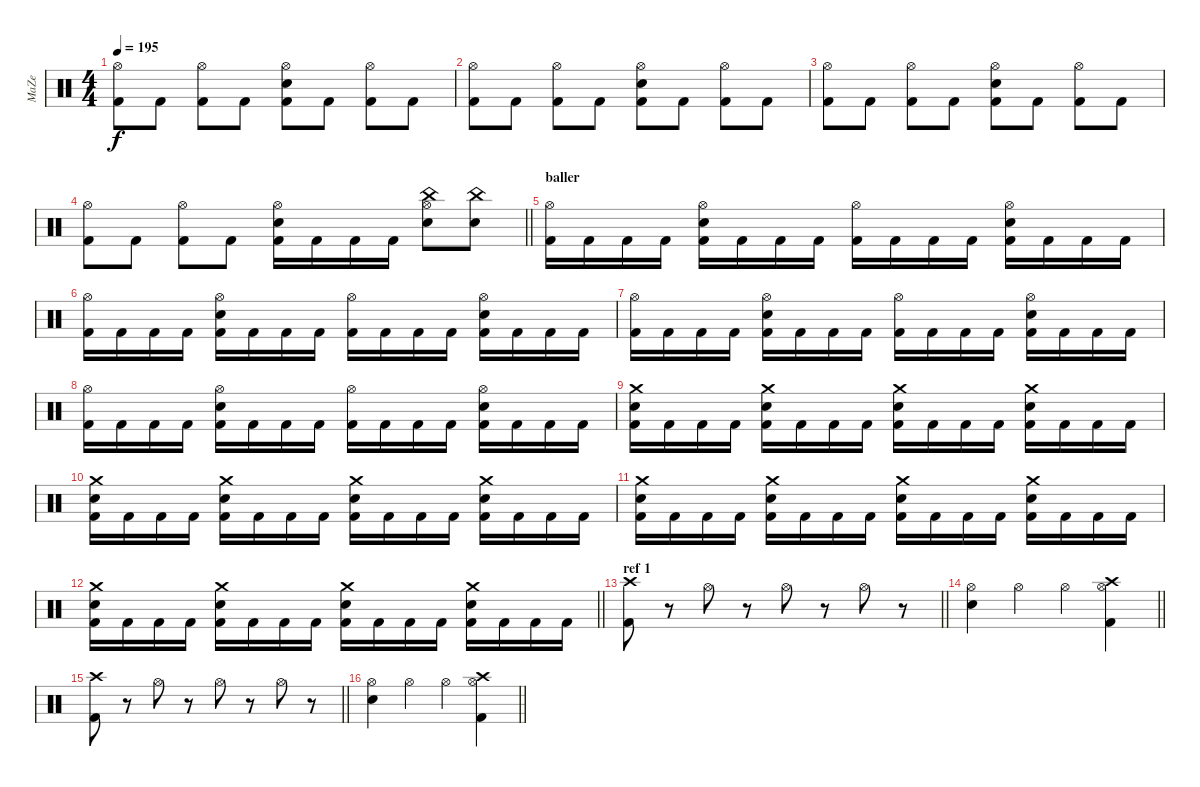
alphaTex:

\track ("MaZe" "MaZe") {instrument percussion}
\staff {score}
\articulation defaults
\ts (4 4)
\tempo 195
\clef neutral
\ks c
("Hi-Hat (open)" "Kick (hit) 2").8{dy f} "Kick (hit) 2".8 ("Hi-Hat (open)" "Kick (hit) 2").8 "Kick (hit) 2".8 ("Snare (hit) 2" "Hi-Hat (open)" "Kick (hit) 2").8 "Kick (hit) 2".8 ("Hi-Hat (open)" "Kick (hit) 2").8 "Kick (hit) 2".8 |
("Hi-Hat (open)" "Kick (hit) 2").8 "Kick (hit) 2".8 ("Hi-Hat (open)" "Kick (hit) 2").8 "Kick (hit) 2".8 ("Snare (hit) 2" "Hi-Hat (open)" "Kick (hit) 2").8 "Kick (hit) 2".8 ("Hi-Hat (open)" "Kick (hit) 2").8 "Kick (hit) 2".8 |
("Hi-Hat (open)" "Kick (hit) 2").8 "Kick (hit) 2".8 ("Hi-Hat (open)" "Kick (hit) 2").8 "Kick (hit) 2".8 ("Snare (hit) 2" "Hi-Hat (open)" "Kick (hit) 2").8 "Kick (hit) 2".8 ("Hi-Hat (open)" "Kick (hit) 2").8 "Kick (hit) 2".8 |
\barLineRight lightlight
("Hi-Hat (open)" "Kick (hit) 2").8 "Kick (hit) 2".8 ("Hi-Hat (open)" "Kick (hit) 2").8 "Kick (hit) 2".8 ("Snare (hit) 2" "Hi-Hat (open)" "Kick (hit) 2").16 "Kick (hit) 2".16 "Kick (hit) 2".16 "Kick (hit) 2".16 ("China (hit)" "Snare (hit) 2" "Hi-Hat (open)").8 ("China (hit)" "Snare (hit) 2").8 |
\section ("" "baller")
("Hi-Hat (open)" "Kick (hit) 2").16 "Kick (hit) 2".16 "Kick (hit) 2".16 "Kick (hit) 2".16 ("Snare (hit) 2" "Hi-Hat (open)" "Kick (hit) 2").16 "Kick (hit) 2".16 "Kick (hit) 2".16 "Kick (hit) 2".16 ("Hi-Hat (open)" "Kick (hit) 2").16 "Kick (hit) 2".16 "Kick (hit) 2".16 "Kick (hit) 2".16 ("Snare (hit) 2" "Hi-Hat (open)" "Kick (hit) 2").16 "Kick (hit) 2".16 "Kick (hit) 2".16 "Kick (hit) 2".16 |
("Hi-Hat (open)" "Kick (hit) 2").16 "Kick (hit) 2".16 "Kick (hit) 2".16 "Kick (hit) 2".16 ("Snare (hit) 2" "Hi-Hat (open)" "Kick (hit) 2").16 "Kick (hit) 2".16 "Kick (hit) 2".16 "Kick (hit) 2".16 ("Hi-Hat (open)" "Kick (hit) 2").16 "Kick (hit) 2".16 "Kick (hit) 2".16 "Kick (hit) 2".16 ("Snare (hit) 2" "Hi-Hat (open)" "Kick (hit) 2").16 "Kick (hit) 2".16 "Kick (hit) 2".16 "Kick (hit) 2".16 |
("Hi-Hat (open)" "Kick (hit) 2").16 "Kick (hit) 2".16 "Kick (hit) 2".16 "Kick (hit) 2".16 ("Snare (hit) 2" "Hi-Hat (open)" "Kick (hit) 2").16 "Kick (hit) 2".16 "Kick (hit) 2".16 "Kick (hit) 2".16 ("Hi-Hat (open)" "Kick (hit) 2").16 "Kick (hit) 2".16 "Kick (hit) 2".16 "Kick (hit) 2".16 ("Snare (hit) 2" "Hi-Hat (open)" "Kick (hit) 2").16 "Kick (hit) 2".16 "Kick (hit) 2".16 "Kick (hit) 2".16 |
("Hi-Hat (open)" "Kick (hit) 2").16 "Kick (hit) 2".16 "Kick (hit) 2".16 "Kick (hit) 2".16 ("Snare (hit) 2" "Hi-Hat (open)" "Kick (hit) 2").16 "Kick (hit) 2".16 "Kick (hit) 2".16 "Kick (hit) 2".16 ("Hi-Hat (open)" "Kick (hit) 2").16 "Kick (hit) 2".16 "Kick (hit) 2".16 "Kick (hit) 2".16 ("Snare (hit) 2" "Hi-Hat (open)" "Kick (hit) 2").16 "Kick (hit) 2".16 "Kick (hit) 2".16 "Kick (hit) 2".16 |
("Snare (hit) 2" "Crash medium (hit)" "Kick (hit) 2").16 "Kick (hit) 2".16 "Kick (hit) 2".16 "Kick (hit) 2".16 ("Snare (hit) 2" "Crash medium (hit)" "Kick (hit) 2").16 "Kick (hit) 2".16 "Kick (hit) 2".16 "Kick (hit) 2".16 ("Snare (hit) 2" "Crash medium (hit)" "Kick (hit) 2").16 "Kick (hit) 2".16 "Kick (hit) 2".16 "Kick (hit) 2".16 ("Snare (hit) 2" "Crash medium (hit)" "Kick (hit) 2").16 "Kick (hit) 2".16 "Kick (hit) 2".16 "Kick (hit) 2".16 |
("Snare (hit) 2" "Crash medium (hit)" "Kick (hit) 2").16 "Kick (hit) 2".16 "Kick (hit) 2".16 "Kick (hit) 2".16 ("Snare (hit) 2" "Crash medium (hit)" "Kick (hit) 2").16 "Kick (hit) 2".16 "Kick (hit) 2".16 "Kick (hit) 2".16 ("Snare (hit) 2" "Crash medium (hit)" "Kick (hit) 2").16 "Kick (hit) 2".16 "Kick (hit) 2".16 "Kick (hit) 2".16 ("Snare (hit) 2" "Crash medium (hit)" "Kick (hit) 2").16 "Kick (hit) 2".16 "Kick (hit) 2".16 "Kick (hit) 2".16 |
("Snare (hit) 2" "Crash medium (hit)" "Kick (hit) 2").16 "Kick (hit) 2".16 "Kick (hit) 2".16 "Kick (hit) 2".16 ("Snare (hit) 2" "Crash medium (hit)" "Kick (hit) 2").16 "Kick (hit) 2".16 "Kick (hit) 2".16 "Kick (hit) 2".16 ("Snare (hit) 2" "Crash medium (hit)" "Kick (hit) 2").16 "Kick (hit) 2".16 "Kick (hit) 2".16 "Kick (hit) 2".16 ("Snare (hit) 2" "Crash medium (hit)" "Kick (hit) 2").16 "Kick (hit) 2".16 "Kick (hit) 2".16 "Kick (hit) 2".16 |
\barLineRight lightlight
("Snare (hit) 2" "Crash medium (hit)" "Kick (hit) 2").16 "Kick (hit) 2".16 "Kick (hit) 2".16 "Kick (hit) 2".16 ("Snare (hit) 2" "Crash medium (hit)" "Kick (hit) 2").16 "Kick (hit) 2".16 "Kick (hit) 2".16 "Kick (hit) 2".16 ("Snare (hit) 2" "Crash medium (hit)" "Kick (hit) 2").16 "Kick (hit) 2".16 "Kick (hit) 2".16 "Kick (hit) 2".16 ("Snare (hit) 2" "Crash medium (hit)" "Kick (hit) 2").16 "Kick (hit) 2".16 "Kick (hit) 2".16 "Kick (hit) 2".16 |
\section ("" "ref 1")
\barLineRight lightlight
("Crash high (hit)" "Kick (hit) 2").8 r.8 "Hi-Hat (open)".8 r.8 "Hi-Hat (open)".8 r.8 "Hi-Hat (open)".8 r.8 |
\barLineRight lightlight
("Snare (hit) 2" "Hi-Hat (open)").4 "Hi-Hat (open)".4 "Hi-Hat (open)".4 ("Crash high (hit)" "Hi-Hat (open)" "Kick (hit) 2").4 |
\barLineRight lightlight
("Crash high (hit)" "Kick (hit) 2").8 r.8 "Hi-Hat (open)".8 r.8 "Hi-Hat (open)".8 r.8 "Hi-Hat (open)".8 r.8 |
\barLineRight lightlight
("Snare (hit) 2" "Hi-Hat (open)").4 "Hi-Hat (open)".4 "Hi-Hat (open)".4 ("Crash high (hit)" "Hi-Hat (open)" "Kick (hit) 2").4
